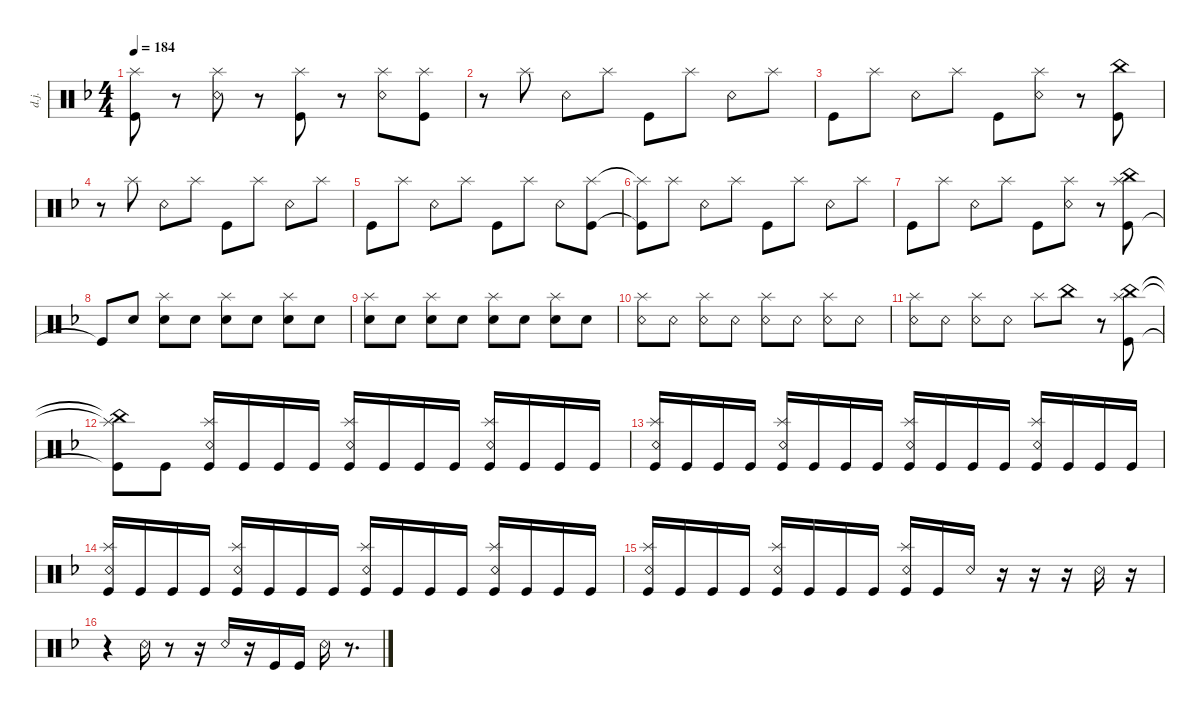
\defaultSystemsLayout 4
\hideDynamics
\bracketExtendMode nobrackets
\otherSystemsTrackNameOrientation horizontal
\track ("Drumkit Jason" "d.j.") {instrument percussion}
\staff {score}
\articulation defaults
\ts (4 4)
\tempo 184
\clef neutral
\ks dminor
("Kick (hit)" "Splash (hit)").8{dy ff} r.8 ("Snare (rim shot)" "Splash (hit)").8 r.8 ("Kick (hit)" "Splash (hit)").8 r.8 ("Snare (rim shot)" "Splash (hit)").8 ("Kick (hit)" "Splash (hit)").8 |
r.8 "Splash (hit)".8 "Snare (rim shot)".8 "Splash (hit)".8 "Kick (hit)".8 "Splash (hit)".8 "Snare (rim shot)".8 "Splash (hit)".8 |
"Kick (hit)".8 "Splash (hit)".8 "Snare (rim shot)".8 "Splash (hit)".8 "Kick (hit)".8 ("Snare (rim shot)" "Splash (hit)").8 r.8 ("Kick (hit)" "China (hit)").8 |
r.8 "Splash (hit)".8 "Snare (rim shot)".8 "Splash (hit)".8 "Kick (hit)".8 "Splash (hit)".8 "Snare (rim shot)".8 "Splash (hit)".8 |
"Kick (hit)".8 "Splash (hit)".8 "Snare (rim shot)".8 "Splash (hit)".8 "Kick (hit)".8 "Splash (hit)".8 "Snare (rim shot)".8 ("Splash (hit)" "Kick (hit)").8 |
("Splash (hit)"{t} "Kick (hit)"{t}).8 "Splash (hit)".8 "Snare (rim shot)".8 "Splash (hit)".8 "Kick (hit)".8 "Splash (hit)".8 "Snare (rim shot)".8 "Splash (hit)".8 |
"Kick (hit)".8 "Splash (hit)".8 "Snare (rim shot)".8 "Splash (hit)".8 "Kick (hit)".8 ("Splash (hit)" "Snare (rim shot)").8 r.8 ("Kick (hit)" "Splash (hit)" "China (hit)").8 |
"Kick (hit)"{t}.8 "Snare (hit) 2".8 ("Snare (hit) 2" "Splash (hit)").8 "Snare (hit) 2".8 ("Snare (hit) 2" "Splash (hit)").8 "Snare (hit) 2".8 ("Snare (hit) 2" "Splash (hit)").8 "Snare (hit) 2".8 |
("Snare (hit) 2" "Splash (hit)").8 "Snare (hit) 2".8 ("Snare (hit) 2" "Splash (hit)").8 "Snare (hit) 2".8 ("Snare (hit) 2" "Splash (hit)").8 "Snare (hit) 2".8 ("Snare (hit) 2" "Splash (hit)").8 "Snare (hit) 2".8 |
("Snare (rim shot)" "Splash (hit)").8 "Snare (rim shot)".8 ("Snare (rim shot)" "Splash (hit)").8 "Snare (rim shot)".8 ("Snare (rim shot)" "Splash (hit)").8 "Snare (rim shot)".8 ("Snare (rim shot)" "Splash (hit)").8 "Snare (rim shot)".8 |
("Snare (rim shot)" "Splash (hit)").8 "Snare (rim shot)".8 ("Snare (rim shot)" "Splash (hit)").8 "Snare (rim shot)".8 "Splash (hit)".8 "China (hit)".8 r.8 ("Kick (hit)" "China (hit)" "Splash (hit)").8 |
("Kick (hit)"{t} "China (hit)"{t} "Splash (hit)"{t}).8 "Kick (hit)".8 ("Kick (hit)" "Snare (rim shot)" "Splash (hit)").16 "Kick (hit)".16 "Kick (hit)".16 "Kick (hit)".16 ("Kick (hit)" "Snare (rim shot)" "Splash (hit)").16 "Kick (hit)".16 "Kick (hit)".16 "Kick (hit)".16 ("Kick (hit)" "Snare (rim shot)" "Splash (hit)").16 "Kick (hit)".16 "Kick (hit)".16 "Kick (hit)".16 |
("Kick (hit)" "Snare (rim shot)" "Splash (hit)").16 "Kick (hit)".16 "Kick (hit)".16 "Kick (hit)".16 ("Kick (hit)" "Snare (rim shot)" "Splash (hit)").16 "Kick (hit)".16 "Kick (hit)".16 "Kick (hit)".16 ("Kick (hit)" "Snare (rim shot)" "Splash (hit)").16 "Kick (hit)".16 "Kick (hit)".16 "Kick (hit)".16 ("Kick (hit)" "Snare (rim shot)" "Splash (hit)").16 "Kick (hit)".16 "Kick (hit)".16 "Kick (hit)".16 |
("Kick (hit)" "Snare (rim shot)" "Splash (hit)").16 "Kick (hit)".16 "Kick (hit)".16 "Kick (hit)".16 ("Kick (hit)" "Snare (rim shot)" "Splash (hit)").16 "Kick (hit)".16 "Kick (hit)".16 "Kick (hit)".16 ("Kick (hit)" "Snare (rim shot)" "Splash (hit)").16 "Kick (hit)".16 "Kick (hit)".16 "Kick (hit)".16 ("Kick (hit)" "Snare (rim shot)" "Splash (hit)").16 "Kick (hit)".16 "Kick (hit)".16 "Kick (hit)".16 |
("Kick (hit)" "Snare (rim shot)" "Splash (hit)").16 "Kick (hit)".16 "Kick (hit)".16 "Kick (hit)".16 ("Kick (hit)" "Snare (rim shot)" "Splash (hit)").16 "Kick (hit)".16 "Kick (hit)".16 "Kick (hit)".16 ("Kick (hit)" "Snare (rim shot)" "Splash (hit)").16 "Kick (hit)".16 "Snare (rim shot)".16 r.16 r.16 r.16 "Snare (rim shot)".16 r.16 |
r.4 "Snare (rim shot)".16 r.8 r.16 "Snare (rim shot)".16 r.16 "Kick (hit)".16 "Kick (hit)".16 "Snare (rim shot)".16 r.8{d}
